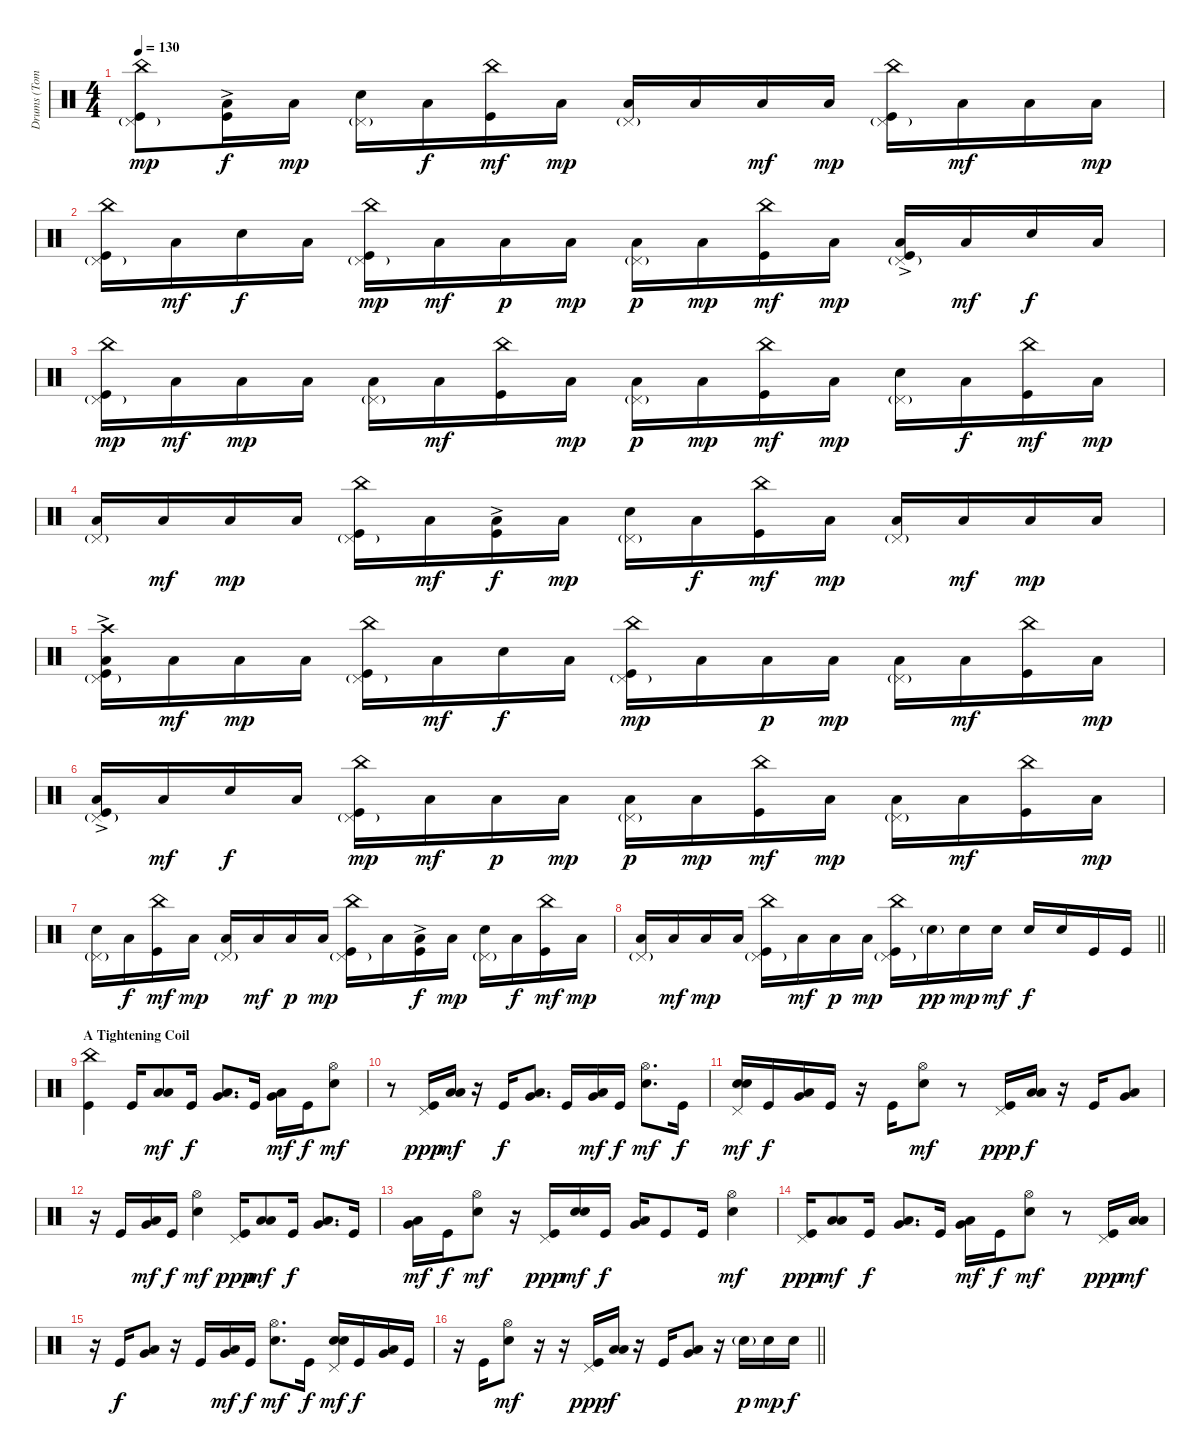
\track ("Drums (Tomas Haake)" "Drums (Tom") {instrument percussion}
\staff {score}
\articulation defaults
\ts (4 4)
\tempo 130
\clef neutral
\ks c
("China (hit)" "Pedal Hi-Hat (hit)"{g} "Kick (hit)").8{dy mp} ("Low Floor Tom (hit)"{ac} "Kick (hit)").16{dy f} "Low Tom (hit)".16{dy mp} ("Pedal Hi-Hat (hit)"{g} "Electric Snare (hit)").16 "Low Tom (hit)".16{dy f} ("China (hit)" "Kick (hit)").16{dy mf} "Low Tom (hit)".16{dy mp} ("Pedal Hi-Hat (hit)"{g} "Low Floor Tom (hit)").16 "Low Tom (hit)".16 "Low Floor Tom (hit)".16{dy mf} "Low Tom (hit)".16{dy mp} ("China (hit)" "Pedal Hi-Hat (hit)"{g} "Kick (hit)").16 "Low Tom (hit)".16{dy mf} "Low Floor Tom (hit)".16 "Low Tom (hit)".16{dy mp} |
("China (hit)" "Pedal Hi-Hat (hit)"{g} "Kick (hit)").16 "Low Tom (hit)".16{dy mf} "Electric Snare (hit)".16{dy f} "Low Tom (hit)".16 ("China (hit)" "Pedal Hi-Hat (hit)"{g} "Kick (hit)").16{dy mp} "Low Tom (hit)".16{dy mf} "Low Floor Tom (hit)".16{dy p} "Low Tom (hit)".16{dy mp} ("Pedal Hi-Hat (hit)"{g} "Low Floor Tom (hit)").16{dy p} "Low Tom (hit)".16{dy mp} ("China (hit)" "Kick (hit)").16{dy mf} "Low Tom (hit)".16{dy mp} ("Pedal Hi-Hat (hit)"{g} "Low Floor Tom (hit)"{ac} "Kick (hit)").16 "Low Tom (hit)".16{dy mf} "Electric Snare (hit)".16{dy f} "Low Tom (hit)".16 |
("China (hit)" "Pedal Hi-Hat (hit)"{g} "Kick (hit)").16{dy mp} "Low Tom (hit)".16{dy mf} "Low Floor Tom (hit)".16{dy mp} "Low Tom (hit)".16 ("Pedal Hi-Hat (hit)"{g} "Low Floor Tom (hit)").16 "Low Tom (hit)".16{dy mf} ("China (hit)" "Kick (hit)").16 "Low Tom (hit)".16{dy mp} ("Pedal Hi-Hat (hit)"{g} "Low Floor Tom (hit)").16{dy p} "Low Tom (hit)".16{dy mp} ("China (hit)" "Kick (hit)").16{dy mf} "Low Tom (hit)".16{dy mp} ("Pedal Hi-Hat (hit)"{g} "Electric Snare (hit)").16 "Low Tom (hit)".16{dy f} ("China (hit)" "Kick (hit)").16{dy mf} "Low Tom (hit)".16{dy mp} |
("Pedal Hi-Hat (hit)"{g} "Low Floor Tom (hit)").16 "Low Tom (hit)".16{dy mf} "Low Floor Tom (hit)".16{dy mp} "Low Tom (hit)".16 ("China (hit)" "Pedal Hi-Hat (hit)"{g} "Kick (hit)").16 "Low Tom (hit)".16{dy mf} ("Low Floor Tom (hit)"{ac} "Kick (hit)").16{dy f} "Low Tom (hit)".16{dy mp} ("Pedal Hi-Hat (hit)"{g} "Electric Snare (hit)").16 "Low Tom (hit)".16{dy f} ("China (hit)" "Kick (hit)").16{dy mf} "Low Tom (hit)".16{dy mp} ("Pedal Hi-Hat (hit)"{g} "Low Floor Tom (hit)").16 "Low Tom (hit)".16{dy mf} "Low Floor Tom (hit)".16{dy mp} "Low Tom (hit)".16 |
("Crash high (hit)" "Pedal Hi-Hat (hit)"{g} "Low Floor Tom (hit)"{ac} "Kick (hit)").16 "Low Tom (hit)".16{dy mf} "Low Floor Tom (hit)".16{dy mp} "Low Tom (hit)".16 ("China (hit)" "Pedal Hi-Hat (hit)"{g} "Kick (hit)").16 "Low Tom (hit)".16{dy mf} "Electric Snare (hit)".16{dy f} "Low Tom (hit)".16 ("China (hit)" "Pedal Hi-Hat (hit)"{g} "Kick (hit)").16{dy mp} "Low Tom (hit)".16 "Low Floor Tom (hit)".16{dy p} "Low Tom (hit)".16{dy mp} ("Pedal Hi-Hat (hit)"{g} "Low Floor Tom (hit)").16 "Low Tom (hit)".16{dy mf} ("China (hit)" "Kick (hit)").16 "Low Tom (hit)".16{dy mp} |
("Pedal Hi-Hat (hit)"{g} "Low Floor Tom (hit)"{ac} "Kick (hit)").16 "Low Tom (hit)".16{dy mf} "Electric Snare (hit)".16{dy f} "Low Tom (hit)".16 ("China (hit)" "Pedal Hi-Hat (hit)"{g} "Kick (hit)").16{dy mp} "Low Tom (hit)".16{dy mf} "Low Floor Tom (hit)".16{dy p} "Low Tom (hit)".16{dy mp} ("Pedal Hi-Hat (hit)"{g} "Low Floor Tom (hit)").16{dy p} "Low Tom (hit)".16{dy mp} ("China (hit)" "Kick (hit)").16{dy mf} "Low Tom (hit)".16{dy mp} ("Pedal Hi-Hat (hit)"{g} "Low Floor Tom (hit)").16 "Low Tom (hit)".16{dy mf} ("China (hit)" "Kick (hit)").16 "Low Tom (hit)".16{dy mp} |
("Pedal Hi-Hat (hit)"{g} "Electric Snare (hit)").16 "Low Tom (hit)".16{dy f} ("China (hit)" "Kick (hit)").16{dy mf} "Low Tom (hit)".16{dy mp} ("Pedal Hi-Hat (hit)"{g} "Low Floor Tom (hit)").16 "Low Tom (hit)".16{dy mf} "Low Floor Tom (hit)".16{dy p} "Low Tom (hit)".16{dy mp} ("China (hit)" "Pedal Hi-Hat (hit)"{g} "Kick (hit)").16 "Low Tom (hit)".16 ("Low Floor Tom (hit)"{ac} "Kick (hit)").16{dy f} "Low Tom (hit)".16{dy mp} ("Pedal Hi-Hat (hit)"{g} "Electric Snare (hit)").16 "Low Tom (hit)".16{dy f} ("China (hit)" "Kick (hit)").16{dy mf} "Low Tom (hit)".16{dy mp} |
\barLineRight lightlight
("Pedal Hi-Hat (hit)"{g} "Low Floor Tom (hit)").16 "Low Tom (hit)".16{dy mf} "Low Floor Tom (hit)".16{dy mp} "Low Tom (hit)".16 ("China (hit)" "Pedal Hi-Hat (hit)"{g} "Kick (hit)").16 "Low Tom (hit)".16{dy mf} "Low Floor Tom (hit)".16{dy p} "Low Tom (hit)".16{dy mp} ("China (hit)" "Pedal Hi-Hat (hit)"{g} "Kick (hit)").16 "Electric Snare (hit)"{g}.16{dy pp} "Electric Snare (hit)".16{dy mp} "Electric Snare (hit)".16{dy mf} "Electric Snare (hit)".16{dy f} "Electric Snare (hit)".16 "Kick (hit)".16 "Kick (hit)".16 |
\section ("" "A Tightening Coil")
("China (hit)" "Kick (hit)").4 "Kick (hit)".16 ("Low Tom (hit)" "Low Floor Tom (hit)").8{bd 60 dy mf} "Kick (hit)".16{dy f} ("Very Low Tom (hit)" "Low Floor Tom (hit)").8{d bd 60} "Kick (hit)".16 ("Very Low Tom (hit)" "Low Floor Tom (hit)").16{bd 60 dy mf} "Kick (hit)".16{dy f} ("Hi-Hat (open)" "Electric Snare (hit)").8{dy mf} |
r.8 ("Pedal Hi-Hat (hit)" "Kick (hit)").16{dy ppp} ("Low Tom (hit)" "Low Floor Tom (hit)").16{bd 60 dy mf} r.16 "Kick (hit)".16{dy f} ("Very Low Tom (hit)" "Low Floor Tom (hit)").8{d bd 60} "Kick (hit)".16 ("Very Low Tom (hit)" "Low Floor Tom (hit)").16{bd 60 dy mf} "Kick (hit)".16{dy f} ("Hi-Hat (open)" "Electric Snare (hit)").8{d dy mf} "Kick (hit)".16{dy f} |
("Pedal Hi-Hat (hit)" "Electric Snare (hit)" "Electric Snare (hit)").16{bd 60 dy mf} "Kick (hit)".16{dy f} ("Very Low Tom (hit)" "Low Floor Tom (hit)").16{bd 60} "Kick (hit)".16 r.16 "Kick (hit)".16 ("Hi-Hat (open)" "Electric Snare (hit)").8{dy mf} r.8 ("Pedal Hi-Hat (hit)" "Kick (hit)").16{dy ppp} ("Low Tom (hit)" "Low Floor Tom (hit)").16{bd 60 dy f} r.16 "Kick (hit)".16 ("Very Low Tom (hit)" "Low Floor Tom (hit)").8{bd 60} |
r.16 "Kick (hit)".16 ("Very Low Tom (hit)" "Low Floor Tom (hit)").16{bd 60 dy mf} "Kick (hit)".16{dy f} ("Hi-Hat (open)" "Electric Snare (hit)").4{dy mf} ("Pedal Hi-Hat (hit)" "Kick (hit)").16{dy ppp} ("Low Tom (hit)" "Low Floor Tom (hit)").8{bd 60 dy mf} "Kick (hit)".16{dy f} ("Very Low Tom (hit)" "Low Floor Tom (hit)").8{d bd 60} "Kick (hit)".16 |
("Very Low Tom (hit)" "Low Floor Tom (hit)").16{bd 60 dy mf} "Kick (hit)".16{dy f} ("Hi-Hat (open)" "Electric Snare (hit)").8{dy mf} r.16 ("Pedal Hi-Hat (hit)" "Kick (hit)").16{dy ppp} ("Electric Snare (hit)" "Electric Snare (hit)").16{bd 60 dy mf} "Kick (hit)".16{dy f} ("Very Low Tom (hit)" "Low Floor Tom (hit)").16{bd 60} "Kick (hit)".8 "Kick (hit)".16 ("Hi-Hat (open)" "Electric Snare (hit)").4{dy mf} |
("Pedal Hi-Hat (hit)" "Kick (hit)").16{dy ppp} ("Low Tom (hit)" "Low Floor Tom (hit)").8{bd 60 dy mf} "Kick (hit)".16{dy f} ("Very Low Tom (hit)" "Low Floor Tom (hit)").8{d bd 60} "Kick (hit)".16 ("Very Low Tom (hit)" "Low Floor Tom (hit)").16{bd 60 dy mf} "Kick (hit)".16{dy f} ("Hi-Hat (open)" "Electric Snare (hit)").8{dy mf} r.8 ("Pedal Hi-Hat (hit)" "Kick (hit)").16{dy ppp} ("Low Tom (hit)" "Low Floor Tom (hit)").16{bd 60 dy mf} |
r.16 "Kick (hit)".16{dy f} ("Very Low Tom (hit)" "Low Floor Tom (hit)").8{bd 60} r.16 "Kick (hit)".16 ("Very Low Tom (hit)" "Low Floor Tom (hit)").16{bd 60 dy mf} "Kick (hit)".16{dy f} ("Hi-Hat (open)" "Electric Snare (hit)").8{d dy mf} "Kick (hit)".16{dy f} ("Pedal Hi-Hat (hit)" "Electric Snare (hit)" "Electric Snare (hit)").16{bd 60 dy mf} "Kick (hit)".16{dy f} ("Very Low Tom (hit)" "Low Floor Tom (hit)").16{bd 60} "Kick (hit)".16 |
\barLineRight lightlight
r.16 "Kick (hit)".16 ("Hi-Hat (open)" "Electric Snare (hit)").8{dy mf} r.16 r.16 ("Pedal Hi-Hat (hit)" "Kick (hit)").16{dy ppp} ("Low Tom (hit)" "Low Floor Tom (hit)").16{bd 60 dy f} r.16 "Kick (hit)".16 ("Very Low Tom (hit)" "Low Floor Tom (hit)").8{bd 60} r.16 "Electric Snare (hit)"{g}.16{dy p} "Electric Snare (hit)".16{dy mp} "Electric Snare (hit)".16{dy f}
